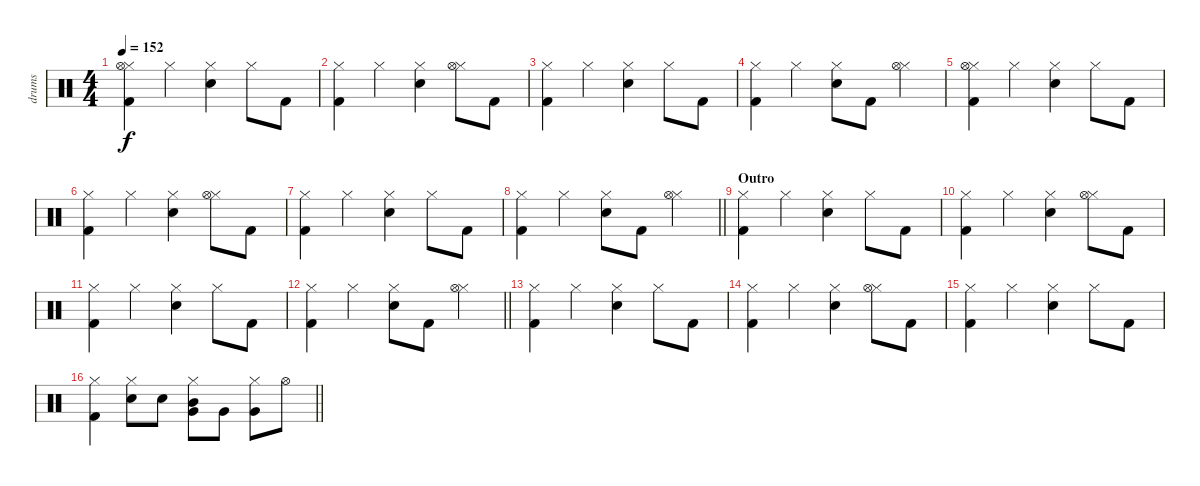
\track ("drums" "drums") {instrument percussion}
\staff {score}
\articulation defaults
\ts (4 4)
\tempo 152
\clef neutral
\ks c
("Hi-Hat (closed)" "Hi-Hat (open)" "Kick (hit) 2").4{dy f} "Hi-Hat (closed)".4 ("Hi-Hat (closed)" "Electric Snare (hit)").4 "Hi-Hat (closed)".8 "Kick (hit) 2".8 |
("Hi-Hat (closed)" "Kick (hit) 2").4 "Hi-Hat (closed)".4 ("Hi-Hat (closed)" "Electric Snare (hit)").4 ("Hi-Hat (closed)" "Hi-Hat (open)").8 "Kick (hit) 2".8 |
("Hi-Hat (closed)" "Kick (hit) 2").4 "Hi-Hat (closed)".4 ("Hi-Hat (closed)" "Electric Snare (hit)").4 "Hi-Hat (closed)".8 "Kick (hit) 2".8 |
("Hi-Hat (closed)" "Kick (hit) 2").4 "Hi-Hat (closed)".4 ("Hi-Hat (closed)" "Electric Snare (hit)").8 "Kick (hit) 2".8 ("Hi-Hat (closed)" "Hi-Hat (open)").4 |
("Hi-Hat (closed)" "Hi-Hat (open)" "Kick (hit) 2").4 "Hi-Hat (closed)".4 ("Hi-Hat (closed)" "Electric Snare (hit)").4 "Hi-Hat (closed)".8 "Kick (hit) 2".8 |
("Hi-Hat (closed)" "Kick (hit) 2").4 "Hi-Hat (closed)".4 ("Hi-Hat (closed)" "Electric Snare (hit)").4 ("Hi-Hat (closed)" "Hi-Hat (open)").8 "Kick (hit) 2".8 |
("Hi-Hat (closed)" "Kick (hit) 2").4 "Hi-Hat (closed)".4 ("Hi-Hat (closed)" "Electric Snare (hit)").4 "Hi-Hat (closed)".8 "Kick (hit) 2".8 |
\barLineRight lightlight
("Hi-Hat (closed)" "Kick (hit) 2").4 "Hi-Hat (closed)".4 ("Hi-Hat (closed)" "Electric Snare (hit)").8 "Kick (hit) 2".8 ("Hi-Hat (closed)" "Hi-Hat (open)").4 |
\section ("" "Outro")
("Hi-Hat (closed)" "Kick (hit) 2").4 "Hi-Hat (closed)".4 ("Hi-Hat (closed)" "Electric Snare (hit)").4 "Hi-Hat (closed)".8 "Kick (hit) 2".8 |
("Hi-Hat (closed)" "Kick (hit) 2").4 "Hi-Hat (closed)".4 ("Hi-Hat (closed)" "Electric Snare (hit)").4 ("Hi-Hat (closed)" "Hi-Hat (open)").8 "Kick (hit) 2".8 |
("Hi-Hat (closed)" "Kick (hit) 2").4 "Hi-Hat (closed)".4 ("Hi-Hat (closed)" "Electric Snare (hit)").4 "Hi-Hat (closed)".8 "Kick (hit) 2".8 |
\barLineRight lightlight
("Hi-Hat (closed)" "Kick (hit) 2").4 "Hi-Hat (closed)".4 ("Hi-Hat (closed)" "Electric Snare (hit)").8 "Kick (hit) 2".8 ("Hi-Hat (closed)" "Hi-Hat (open)").4 |
("Hi-Hat (closed)" "Kick (hit) 2").4 "Hi-Hat (closed)".4 ("Hi-Hat (closed)" "Electric Snare (hit)").4 "Hi-Hat (closed)".8 "Kick (hit) 2".8 |
("Hi-Hat (closed)" "Kick (hit) 2").4 "Hi-Hat (closed)".4 ("Hi-Hat (closed)" "Electric Snare (hit)").4 ("Hi-Hat (closed)" "Hi-Hat (open)").8 "Kick (hit) 2".8 |
("Hi-Hat (closed)" "Kick (hit) 2").4 "Hi-Hat (closed)".4 ("Hi-Hat (closed)" "Electric Snare (hit)").4 "Hi-Hat (closed)".8 "Kick (hit) 2".8 |
\barLineRight lightlight
("Hi-Hat (closed)" "Kick (hit) 2").4 ("Hi-Hat (closed)" "Electric Snare (hit)").8 "Electric Snare (hit)".8 ("Hi-Hat (closed)" "Very Low Tom (hit)" "Mid Tom (hit)").8 "Very Low Tom (hit)".8 ("Hi-Hat (closed)" "Very Low Tom (hit)").8 "Hi-Hat (open)".8
